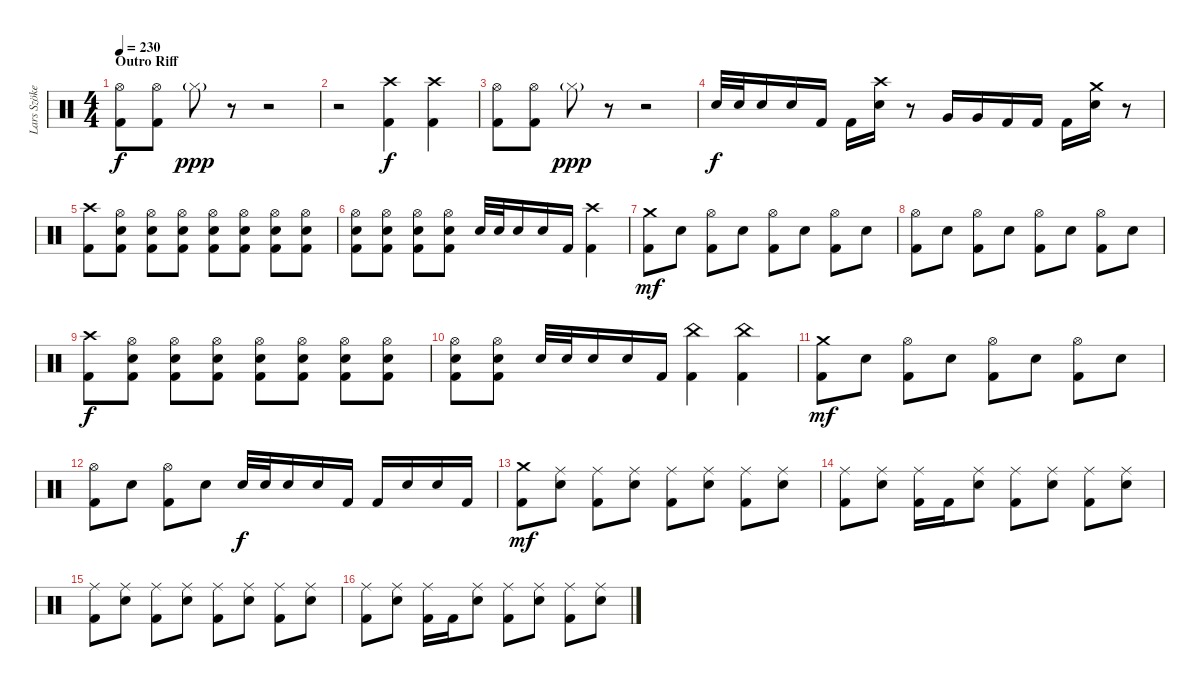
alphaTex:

\track ("Lars Szöke" "Lars Szöke") {instrument percussion}
\staff {score}
\articulation defaults
\ts (4 4)
\section ("" "Outro Riff")
\tempo 230
\clef neutral
\ks c
("Hi-Hat (open)" "Kick (hit) 2").8{dy f} ("Hi-Hat (open)" "Kick (hit) 2").8 "Hi-Hat (closed)"{g}.8{dy ppp} r.8 r.2 |
r.2 ("Crash high (hit)" "Kick (hit) 2").4{dy f} ("Crash high (hit)" "Kick (hit) 2").4 |
("Hi-Hat (open)" "Kick (hit) 2").8 ("Hi-Hat (open)" "Kick (hit) 2").8 "Hi-Hat (closed)"{g}.8{dy ppp} r.8 r.2 |
"Snare (hit) 2".32{dy f} "Snare (hit) 2".32 "Snare (hit) 2".16 "Snare (hit) 2".16 "Kick (hit) 2".16 "Kick (hit) 2".16 ("Crash high (hit)" "Snare (hit) 2").16 r.8 "Very Low Tom (hit)".16 "Very Low Tom (hit)".16 "Kick (hit) 2".16 "Kick (hit) 2".16 "Kick (hit) 2".16 ("Crash medium (hit)" "Snare (hit) 2").16 r.8 |
("Crash high (hit)" "Kick (hit) 2").8 ("Hi-Hat (open)" "Snare (hit) 2" "Kick (hit) 2").8 ("Hi-Hat (open)" "Snare (hit) 2" "Kick (hit) 2").8 ("Hi-Hat (open)" "Snare (hit) 2" "Kick (hit) 2").8 ("Hi-Hat (open)" "Snare (hit) 2" "Kick (hit) 2").8 ("Hi-Hat (open)" "Snare (hit) 2" "Kick (hit) 2").8 ("Hi-Hat (open)" "Snare (hit) 2" "Kick (hit) 2").8 ("Hi-Hat (open)" "Snare (hit) 2" "Kick (hit) 2").8 |
("Hi-Hat (open)" "Snare (hit) 2" "Kick (hit) 2").8 ("Hi-Hat (open)" "Snare (hit) 2" "Kick (hit) 2").8 ("Hi-Hat (open)" "Snare (hit) 2" "Kick (hit) 2").8 ("Hi-Hat (open)" "Snare (hit) 2" "Kick (hit) 2").8 "Snare (hit) 2".32 "Snare (hit) 2".32 "Snare (hit) 2".16 "Snare (hit) 2".16 "Kick (hit) 2".16 ("Crash high (hit)" "Kick (hit) 2").4 |
("Crash medium (hit)" "Kick (hit) 2").8{dy mf} "Snare (hit) 2".8 ("Hi-Hat (open)" "Kick (hit) 2").8 "Snare (hit) 2".8 ("Hi-Hat (open)" "Kick (hit) 2").8 "Snare (hit) 2".8 ("Hi-Hat (open)" "Kick (hit) 2").8 "Snare (hit) 2".8 |
("Hi-Hat (open)" "Kick (hit) 2").8 "Snare (hit) 2".8 ("Hi-Hat (open)" "Kick (hit) 2").8 "Snare (hit) 2".8 ("Hi-Hat (open)" "Kick (hit) 2").8 "Snare (hit) 2".8 ("Hi-Hat (open)" "Kick (hit) 2").8 "Snare (hit) 2".8 |
("Crash high (hit)" "Kick (hit) 2").8{dy f} ("Hi-Hat (open)" "Snare (hit) 2" "Kick (hit) 2").8 ("Hi-Hat (open)" "Snare (hit) 2" "Kick (hit) 2").8 ("Hi-Hat (open)" "Snare (hit) 2" "Kick (hit) 2").8 ("Hi-Hat (open)" "Snare (hit) 2" "Kick (hit) 2").8 ("Hi-Hat (open)" "Snare (hit) 2" "Kick (hit) 2").8 ("Hi-Hat (open)" "Snare (hit) 2" "Kick (hit) 2").8 ("Hi-Hat (open)" "Snare (hit) 2" "Kick (hit) 2").8 |
("Hi-Hat (open)" "Snare (hit) 2" "Kick (hit) 2").8 ("Hi-Hat (open)" "Snare (hit) 2" "Kick (hit) 2").8 "Snare (hit) 2".32 "Snare (hit) 2".32 "Snare (hit) 2".16 "Snare (hit) 2".16 "Kick (hit) 2".16 ("China (hit)" "Kick (hit) 2").4 ("China (hit)" "Kick (hit) 2").4 |
("Crash medium (hit)" "Kick (hit) 2").8{dy mf} "Snare (hit) 2".8 ("Hi-Hat (open)" "Kick (hit) 2").8 "Snare (hit) 2".8 ("Hi-Hat (open)" "Kick (hit) 2").8 "Snare (hit) 2".8 ("Hi-Hat (open)" "Kick (hit) 2").8 "Snare (hit) 2".8 |
("Hi-Hat (open)" "Kick (hit) 2").8 "Snare (hit) 2".8 ("Hi-Hat (open)" "Kick (hit) 2").8 "Snare (hit) 2".8 "Snare (hit) 2".32{dy f} "Snare (hit) 2".32 "Snare (hit) 2".16 "Snare (hit) 2".16 "Kick (hit) 2".16 "Kick (hit) 2".16 "Snare (hit) 2".16 "Snare (hit) 2".16 "Kick (hit) 2".16 |
("Crash medium (hit)" "Kick (hit) 2").8{dy mf} ("Ride (middle)" "Snare (hit) 2").8 ("Ride (middle)" "Kick (hit) 2").8 ("Ride (middle)" "Snare (hit) 2").8 ("Ride (middle)" "Kick (hit) 2").8 ("Ride (middle)" "Snare (hit) 2").8 ("Ride (middle)" "Kick (hit) 2").8 ("Ride (middle)" "Snare (hit) 2").8 |
("Ride (middle)" "Kick (hit) 2").8 ("Ride (middle)" "Snare (hit) 2").8 ("Ride (middle)" "Kick (hit) 2").16 "Kick (hit) 2".16 ("Ride (middle)" "Snare (hit) 2").8 ("Ride (middle)" "Kick (hit) 2").8 ("Ride (middle)" "Snare (hit) 2").8 ("Ride (middle)" "Kick (hit) 2").8 ("Ride (middle)" "Snare (hit) 2").8 |
("Ride (middle)" "Kick (hit) 2").8 ("Ride (middle)" "Snare (hit) 2").8 ("Ride (middle)" "Kick (hit) 2").8 ("Ride (middle)" "Snare (hit) 2").8 ("Ride (middle)" "Kick (hit) 2").8 ("Ride (middle)" "Snare (hit) 2").8 ("Ride (middle)" "Kick (hit) 2").8 ("Ride (middle)" "Snare (hit) 2").8 |
("Ride (middle)" "Kick (hit) 2").8 ("Ride (middle)" "Snare (hit) 2").8 ("Ride (middle)" "Kick (hit) 2").16 "Kick (hit) 2".16 ("Ride (middle)" "Snare (hit) 2").8 ("Ride (middle)" "Kick (hit) 2").8 ("Ride (middle)" "Snare (hit) 2").8 ("Ride (middle)" "Kick (hit) 2").8 ("Ride (middle)" "Snare (hit) 2").8
